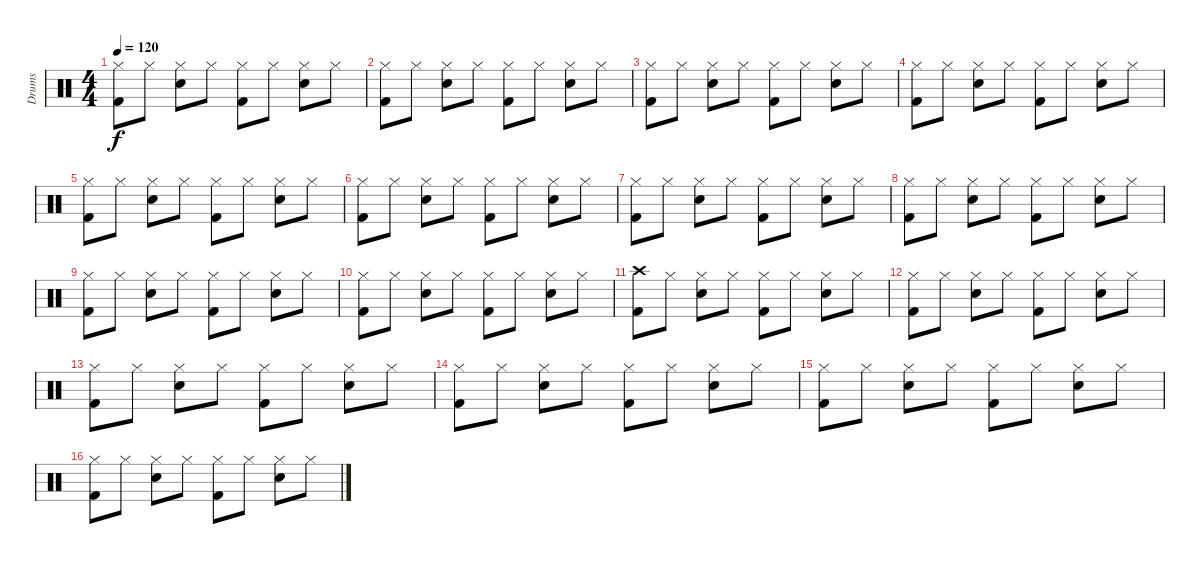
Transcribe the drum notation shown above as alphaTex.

\track ("Drums" "Drums") {instrument percussion}
\staff {score}
\articulation defaults
\ts (4 4)
\tempo 120
\clef neutral
\ks c
("Hi-Hat (closed)" "Kick (hit) 2").8{dy f} "Hi-Hat (closed)".8 ("Hi-Hat (closed)" "Snare (hit) 2").8 "Hi-Hat (closed)".8 ("Hi-Hat (closed)" "Kick (hit) 2").8 "Hi-Hat (closed)".8 ("Hi-Hat (closed)" "Snare (hit) 2").8 "Hi-Hat (closed)".8 |
("Hi-Hat (closed)" "Kick (hit) 2").8 "Hi-Hat (closed)".8 ("Hi-Hat (closed)" "Snare (hit) 2").8 "Hi-Hat (closed)".8 ("Hi-Hat (closed)" "Kick (hit) 2").8 "Hi-Hat (closed)".8 ("Hi-Hat (closed)" "Snare (hit) 2").8 "Hi-Hat (closed)".8 |
("Hi-Hat (closed)" "Kick (hit) 2").8 "Hi-Hat (closed)".8 ("Hi-Hat (closed)" "Snare (hit) 2").8 "Hi-Hat (closed)".8 ("Hi-Hat (closed)" "Kick (hit) 2").8 "Hi-Hat (closed)".8 ("Hi-Hat (closed)" "Snare (hit) 2").8 "Hi-Hat (closed)".8 |
("Hi-Hat (closed)" "Kick (hit) 2").8 "Hi-Hat (closed)".8 ("Hi-Hat (closed)" "Snare (hit) 2").8 "Hi-Hat (closed)".8 ("Hi-Hat (closed)" "Kick (hit) 2").8 "Hi-Hat (closed)".8 ("Hi-Hat (closed)" "Snare (hit) 2").8 "Hi-Hat (closed)".8 |
("Hi-Hat (closed)" "Kick (hit) 2").8 "Hi-Hat (closed)".8 ("Hi-Hat (closed)" "Snare (hit) 2").8 "Hi-Hat (closed)".8 ("Hi-Hat (closed)" "Kick (hit) 2").8 "Hi-Hat (closed)".8 ("Hi-Hat (closed)" "Snare (hit) 2").8 "Hi-Hat (closed)".8 |
("Hi-Hat (closed)" "Kick (hit) 2").8 "Hi-Hat (closed)".8 ("Hi-Hat (closed)" "Snare (hit) 2").8 "Hi-Hat (closed)".8 ("Hi-Hat (closed)" "Kick (hit) 2").8 "Hi-Hat (closed)".8 ("Hi-Hat (closed)" "Snare (hit) 2").8 "Hi-Hat (closed)".8 |
("Hi-Hat (closed)" "Kick (hit) 2").8 "Hi-Hat (closed)".8 ("Hi-Hat (closed)" "Snare (hit) 2").8 "Hi-Hat (closed)".8 ("Hi-Hat (closed)" "Kick (hit) 2").8 "Hi-Hat (closed)".8 ("Hi-Hat (closed)" "Snare (hit) 2").8 "Hi-Hat (closed)".8 |
("Hi-Hat (closed)" "Kick (hit) 2").8 "Hi-Hat (closed)".8 ("Hi-Hat (closed)" "Snare (hit) 2").8 "Hi-Hat (closed)".8 ("Hi-Hat (closed)" "Kick (hit) 2").8 "Hi-Hat (closed)".8 ("Hi-Hat (closed)" "Snare (hit) 2").8 "Hi-Hat (closed)".8 |
("Hi-Hat (closed)" "Kick (hit) 2").8 "Hi-Hat (closed)".8 ("Hi-Hat (closed)" "Snare (hit) 2").8 "Hi-Hat (closed)".8 ("Hi-Hat (closed)" "Kick (hit) 2").8 "Hi-Hat (closed)".8 ("Hi-Hat (closed)" "Snare (hit) 2").8 "Hi-Hat (closed)".8 |
("Hi-Hat (closed)" "Kick (hit) 2").8 "Hi-Hat (closed)".8 ("Hi-Hat (closed)" "Snare (hit) 2").8 "Hi-Hat (closed)".8 ("Hi-Hat (closed)" "Kick (hit) 2").8 "Hi-Hat (closed)".8 ("Hi-Hat (closed)" "Snare (hit) 2").8 "Hi-Hat (closed)".8 |
("Crash high (hit)" "Kick (hit) 2").8 "Hi-Hat (closed)".8 ("Hi-Hat (closed)" "Snare (hit) 2").8 "Hi-Hat (closed)".8 ("Hi-Hat (closed)" "Kick (hit) 2").8 "Hi-Hat (closed)".8 ("Hi-Hat (closed)" "Snare (hit) 2").8 "Hi-Hat (closed)".8 |
("Hi-Hat (closed)" "Kick (hit) 2").8 "Hi-Hat (closed)".8 ("Hi-Hat (closed)" "Snare (hit) 2").8 "Hi-Hat (closed)".8 ("Hi-Hat (closed)" "Kick (hit) 2").8 "Hi-Hat (closed)".8 ("Hi-Hat (closed)" "Snare (hit) 2").8 "Hi-Hat (closed)".8 |
("Hi-Hat (closed)" "Kick (hit) 2").8 "Hi-Hat (closed)".8 ("Hi-Hat (closed)" "Snare (hit) 2").8 "Hi-Hat (closed)".8 ("Hi-Hat (closed)" "Kick (hit) 2").8 "Hi-Hat (closed)".8 ("Hi-Hat (closed)" "Snare (hit) 2").8 "Hi-Hat (closed)".8 |
("Hi-Hat (closed)" "Kick (hit) 2").8 "Hi-Hat (closed)".8 ("Hi-Hat (closed)" "Snare (hit) 2").8 "Hi-Hat (closed)".8 ("Hi-Hat (closed)" "Kick (hit) 2").8 "Hi-Hat (closed)".8 ("Hi-Hat (closed)" "Snare (hit) 2").8 "Hi-Hat (closed)".8 |
("Hi-Hat (closed)" "Kick (hit) 2").8 "Hi-Hat (closed)".8 ("Hi-Hat (closed)" "Snare (hit) 2").8 "Hi-Hat (closed)".8 ("Hi-Hat (closed)" "Kick (hit) 2").8 "Hi-Hat (closed)".8 ("Hi-Hat (closed)" "Snare (hit) 2").8 "Hi-Hat (closed)".8 |
("Hi-Hat (closed)" "Kick (hit) 2").8 "Hi-Hat (closed)".8 ("Hi-Hat (closed)" "Snare (hit) 2").8 "Hi-Hat (closed)".8 ("Hi-Hat (closed)" "Kick (hit) 2").8 "Hi-Hat (closed)".8 ("Hi-Hat (closed)" "Snare (hit) 2").8 "Hi-Hat (closed)".8
